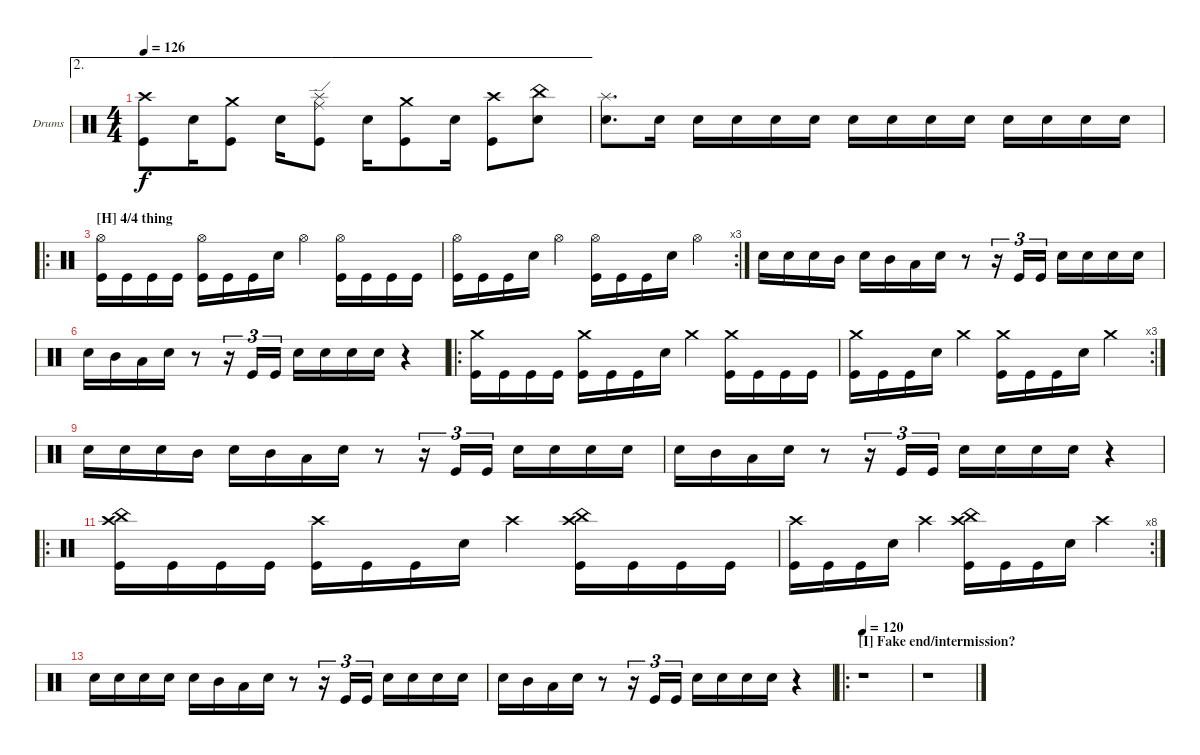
\bracketExtendMode groupsimilarinstruments
\firstSystemTrackNameOrientation horizontal
\otherSystemsTrackNameOrientation horizontal
\defaultBarNumberDisplay FirstOfSystem
\track ("Drumkit" "Drums") {instrument percussion}
\staff {score}
\articulation defaults
\ae 2
\ts (4 4)
\tempo 126
\clef neutral
\ks c
("Kick (hit)" "Crash high (hit)").8{dy f} "Snare (hit) 2".16 ("Kick (hit)" "Crash medium (hit)").8 "Snare (hit) 2".16 ("Kick (hit)" "Ride (edge)" "Splash (hit)").8 "Snare (hit) 2".16 ("Kick (hit)" "Crash medium (hit)").8 "Snare (hit) 2".16 ("Kick (hit)" "Crash high (hit)").8 ("Snare (hit) 2" "China (hit)").8 |
("Splash (hit)" "Snare (hit) 2").8{d} "Snare (hit) 2".16 "Snare (hit) 2".16 "Snare (hit) 2".16 "Snare (hit) 2".16 "Snare (hit) 2".16 "Snare (hit) 2".16 "Snare (hit) 2".16 "Snare (hit) 2".16 "Snare (hit) 2".16 "Snare (hit) 2".16 "Snare (hit) 2".16 "Snare (hit) 2".16 "Snare (hit) 2".16 |
\ro
\section ("H" "4/4 thing")
("Kick (hit)" "Hi-Hat (open)").16 "Kick (hit)".16 "Kick (hit)".16 "Kick (hit)".16 ("Kick (hit)" "Hi-Hat (open)").16 "Kick (hit)".16 "Kick (hit)".16 "Snare (hit) 2".16 "Hi-Hat (open)".4 ("Hi-Hat (open)" "Kick (hit)").16 "Kick (hit)".16 "Kick (hit)".16 "Kick (hit)".16 |
\rc 3
("Kick (hit)" "Hi-Hat (open)").16 "Kick (hit)".16 "Kick (hit)".16 "Snare (hit) 2".16 "Hi-Hat (open)".4 ("Hi-Hat (open)" "Kick (hit)").16 "Kick (hit)".16 "Kick (hit)".16 "Snare (hit) 2".16 "Hi-Hat (open)".4 |
"Snare (hit) 2".16 "Snare (hit) 2".16 "Snare (hit) 2".16 "Mid Tom (hit)".16 "Snare (hit) 2".16 "Mid Tom (hit)".16 "Low Tom (hit)".16 "Snare (hit) 2".16 r.8 r.16{tu (3 2)} "Kick (hit)".16{tu (3 2)} "Kick (hit)".16{tu (3 2)} "Snare (hit) 2".16 "Snare (hit) 2".16 "Snare (hit) 2".16 "Snare (hit) 2".16 |
"Snare (hit) 2".16 "Mid Tom (hit)".16 "Low Tom (hit)".16 "Snare (hit) 2".16 r.8 r.16{tu (3 2)} "Kick (hit)".16{tu (3 2)} "Kick (hit)".16{tu (3 2)} "Snare (hit) 2".16 "Snare (hit) 2".16 "Snare (hit) 2".16 "Snare (hit) 2".16 r.4 |
\ro
("Crash medium (hit)" "Kick (hit)").16 "Kick (hit)".16 "Kick (hit)".16 "Kick (hit)".16 ("Kick (hit)" "Crash medium (hit)").16 "Kick (hit)".16 "Kick (hit)".16 "Snare (hit) 2".16 "Crash medium (hit)".4 ("Crash medium (hit)" "Kick (hit)").16 "Kick (hit)".16 "Kick (hit)".16 "Kick (hit)".16 |
\rc 3
("Kick (hit)" "Crash medium (hit)").16 "Kick (hit)".16 "Kick (hit)".16 "Snare (hit) 2".16 "Crash medium (hit)".4 ("Crash medium (hit)" "Kick (hit)").16 "Kick (hit)".16 "Kick (hit)".16 "Snare (hit) 2".16 "Crash medium (hit)".4 |
"Snare (hit) 2".16 "Snare (hit) 2".16 "Snare (hit) 2".16 "Mid Tom (hit)".16 "Snare (hit) 2".16 "Mid Tom (hit)".16 "Low Tom (hit)".16 "Snare (hit) 2".16 r.8 r.16{tu (3 2)} "Kick (hit)".16{tu (3 2)} "Kick (hit)".16{tu (3 2)} "Snare (hit) 2".16 "Snare (hit) 2".16 "Snare (hit) 2".16 "Snare (hit) 2".16 |
"Snare (hit) 2".16 "Mid Tom (hit)".16 "Low Tom (hit)".16 "Snare (hit) 2".16 r.8 r.16{tu (3 2)} "Kick (hit)".16{tu (3 2)} "Kick (hit)".16{tu (3 2)} "Snare (hit) 2".16 "Snare (hit) 2".16 "Snare (hit) 2".16 "Snare (hit) 2".16 r.4 |
\ro
("Kick (hit)" "China (hit)" "Crash high (hit)").16 "Kick (hit)".16 "Kick (hit)".16 "Kick (hit)".16 ("Kick (hit)" "Crash high (hit)").16 "Kick (hit)".16 "Kick (hit)".16 "Snare (hit) 2".16 "Crash high (hit)".4 ("Kick (hit)" "China (hit)" "Crash high (hit)").16 "Kick (hit)".16 "Kick (hit)".16 "Kick (hit)".16 |
\rc 8
("Kick (hit)" "Crash high (hit)").16 "Kick (hit)".16 "Kick (hit)".16 "Snare (hit) 2".16 "Crash high (hit)".4 ("Kick (hit)" "China (hit)" "Crash high (hit)").16 "Kick (hit)".16 "Kick (hit)".16 "Snare (hit) 2".16 "Crash high (hit)".4 |
"Snare (hit) 2".16 "Snare (hit) 2".16 "Snare (hit) 2".16 "Snare (hit) 2".16 "Snare (hit) 2".16 "Mid Tom (hit)".16 "Low Tom (hit)".16 "Snare (hit) 2".16 r.8 r.16{tu (3 2)} "Kick (hit)".16{tu (3 2)} "Kick (hit)".16{tu (3 2)} "Snare (hit) 2".16 "Snare (hit) 2".16 "Snare (hit) 2".16 "Snare (hit) 2".16 |
"Snare (hit) 2".16 "Mid Tom (hit)".16 "Low Tom (hit)".16 "Snare (hit) 2".16 r.8 r.16{tu (3 2)} "Kick (hit)".16{tu (3 2)} "Kick (hit)".16{tu (3 2)} "Snare (hit) 2".16 "Snare (hit) 2".16 "Snare (hit) 2".16 "Snare (hit) 2".16 r.4 |
\ro
\section ("I" "Fake end/intermission?")
\tempo 120
r.1 |
r.1
